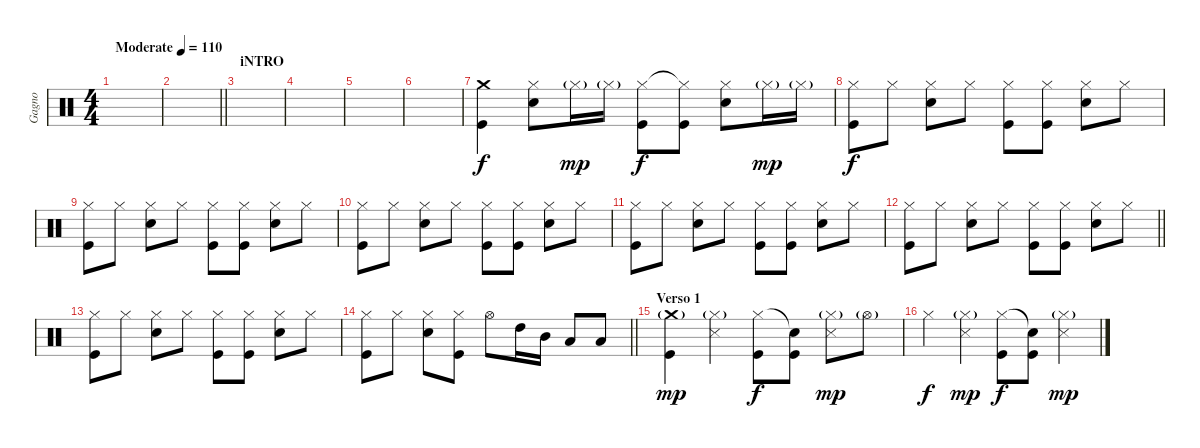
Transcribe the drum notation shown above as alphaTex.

\track ("Gagno" "Gagno") {instrument percussion}
\staff {score}
\articulation defaults
\ts (4 4)
\tempo (110 "Moderate")
\clef neutral
\ks c
|
\barLineRight lightlight
|
\section ("" "iNTRO")
|
|
|
|
("Crash medium (hit)" "Kick (hit)").4 ("Hi-Hat (closed)" "Snare (hit) 2").8 "Hi-Hat (closed)"{g}.16{dy mp} "Hi-Hat (closed)"{g}.16 ("Hi-Hat (closed)" "Kick (hit)").8{dy f} ("Hi-Hat (closed)"{t} "Kick (hit)").8 ("Hi-Hat (closed)" "Snare (hit) 2").8 "Hi-Hat (closed)"{g}.16{dy mp} "Hi-Hat (closed)"{g}.16 |
("Hi-Hat (closed)" "Kick (hit)").8{dy f} "Hi-Hat (closed)".8 ("Hi-Hat (closed)" "Snare (hit) 2").8 "Hi-Hat (closed)".8 ("Hi-Hat (closed)" "Kick (hit)").8 ("Hi-Hat (closed)" "Kick (hit)").8 ("Hi-Hat (closed)" "Snare (hit) 2").8 "Hi-Hat (closed)".8 |
("Hi-Hat (closed)" "Kick (hit)").8 "Hi-Hat (closed)".8 ("Hi-Hat (closed)" "Snare (hit) 2").8 "Hi-Hat (closed)".8 ("Hi-Hat (closed)" "Kick (hit)").8 ("Hi-Hat (closed)" "Kick (hit)").8 ("Hi-Hat (closed)" "Snare (hit) 2").8 "Hi-Hat (closed)".8 |
("Hi-Hat (closed)" "Kick (hit)").8 "Hi-Hat (closed)".8 ("Hi-Hat (closed)" "Snare (hit) 2").8 "Hi-Hat (closed)".8 ("Hi-Hat (closed)" "Kick (hit)").8 ("Hi-Hat (closed)" "Kick (hit)").8 ("Hi-Hat (closed)" "Snare (hit) 2").8 "Hi-Hat (closed)".8 |
("Hi-Hat (closed)" "Kick (hit)").8 "Hi-Hat (closed)".8 ("Hi-Hat (closed)" "Snare (hit) 2").8 "Hi-Hat (closed)".8 ("Hi-Hat (closed)" "Kick (hit)").8 ("Hi-Hat (closed)" "Kick (hit)").8 ("Hi-Hat (closed)" "Snare (hit) 2").8 "Hi-Hat (closed)".8 |
\barLineRight lightlight
("Hi-Hat (closed)" "Kick (hit)").8 "Hi-Hat (closed)".8 ("Hi-Hat (closed)" "Snare (hit) 2").8 "Hi-Hat (closed)".8 ("Hi-Hat (closed)" "Kick (hit)").8 ("Hi-Hat (closed)" "Kick (hit)").8 ("Hi-Hat (closed)" "Snare (hit) 2").8 "Hi-Hat (closed)".8 |
\section ("" "")
("Hi-Hat (closed)" "Kick (hit)").8 "Hi-Hat (closed)".8 ("Hi-Hat (closed)" "Snare (hit) 2").8 "Hi-Hat (closed)".8 ("Hi-Hat (closed)" "Kick (hit)").8 ("Hi-Hat (closed)" "Kick (hit)").8 ("Hi-Hat (closed)" "Snare (hit) 2").8 "Hi-Hat (closed)".8 |
\barLineRight lightlight
("Hi-Hat (closed)" "Kick (hit)").8 "Hi-Hat (closed)".8 ("Hi-Hat (closed)" "Snare (hit) 2").8 ("Hi-Hat (closed)" "Kick (hit)").8 "Hi-Hat (open)".8 "High Tom (hit)".16 "Mid Tom (hit)".16 "Low Tom (hit)".8 "Low Floor Tom (hit)".8 |
\section ("" "Verso 1")
("Crash medium (hit)"{g} "Kick (hit)").4{dy mp} ("Hi-Hat (closed)"{g} "Snare (side stick) 3").4 ("Hi-Hat (closed)" "Kick (hit)").8{dy f} ("Snare (hit)"{t} "Kick (hit)").8 ("Hi-Hat (closed)"{g} "Snare (side stick) 3").8{dy mp} "Hi-Hat (open)"{g}.8 |
"Hi-Hat (closed)".4{dy f} ("Hi-Hat (closed)"{g} "Snare (side stick) 3").4{dy mp} ("Hi-Hat (closed)" "Kick (hit)").8{dy f} ("Snare (hit)"{t} "Kick (hit)").8 ("Hi-Hat (closed)"{g} "Snare (side stick) 3").4{dy mp}
